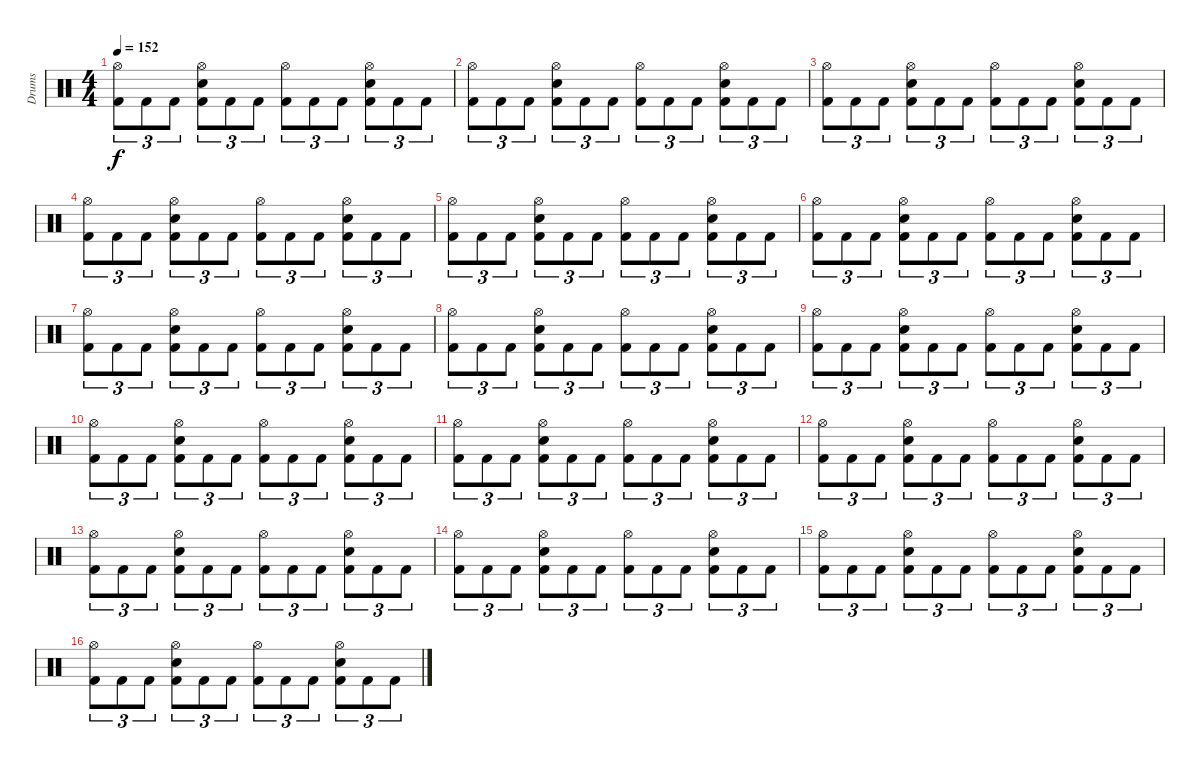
\track ("Drums" "Drums") {instrument percussion}
\staff {score}
\articulation defaults
\ts (4 4)
\tempo 152
\clef neutral
\ks c
("Hi-Hat (open)" "Kick (hit) 2").8{tu (3 2) dy f} "Kick (hit) 2".8{tu (3 2)} "Kick (hit) 2".8{tu (3 2)} ("Hi-Hat (open)" "Snare (hit) 2" "Kick (hit) 2").8{tu (3 2)} "Kick (hit) 2".8{tu (3 2)} "Kick (hit) 2".8{tu (3 2)} ("Hi-Hat (open)" "Kick (hit) 2").8{tu (3 2)} "Kick (hit) 2".8{tu (3 2)} "Kick (hit) 2".8{tu (3 2)} ("Hi-Hat (open)" "Snare (hit) 2" "Kick (hit) 2").8{tu (3 2)} "Kick (hit) 2".8{tu (3 2)} "Kick (hit) 2".8{tu (3 2)} |
("Hi-Hat (open)" "Kick (hit) 2").8{tu (3 2)} "Kick (hit) 2".8{tu (3 2)} "Kick (hit) 2".8{tu (3 2)} ("Hi-Hat (open)" "Snare (hit) 2" "Kick (hit) 2").8{tu (3 2)} "Kick (hit) 2".8{tu (3 2)} "Kick (hit) 2".8{tu (3 2)} ("Hi-Hat (open)" "Kick (hit) 2").8{tu (3 2)} "Kick (hit) 2".8{tu (3 2)} "Kick (hit) 2".8{tu (3 2)} ("Hi-Hat (open)" "Snare (hit) 2" "Kick (hit) 2").8{tu (3 2)} "Kick (hit) 2".8{tu (3 2)} "Kick (hit) 2".8{tu (3 2)} |
("Hi-Hat (open)" "Kick (hit) 2").8{tu (3 2)} "Kick (hit) 2".8{tu (3 2)} "Kick (hit) 2".8{tu (3 2)} ("Hi-Hat (open)" "Snare (hit) 2" "Kick (hit) 2").8{tu (3 2)} "Kick (hit) 2".8{tu (3 2)} "Kick (hit) 2".8{tu (3 2)} ("Hi-Hat (open)" "Kick (hit) 2").8{tu (3 2)} "Kick (hit) 2".8{tu (3 2)} "Kick (hit) 2".8{tu (3 2)} ("Hi-Hat (open)" "Snare (hit) 2" "Kick (hit) 2").8{tu (3 2)} "Kick (hit) 2".8{tu (3 2)} "Kick (hit) 2".8{tu (3 2)} |
("Hi-Hat (open)" "Kick (hit) 2").8{tu (3 2)} "Kick (hit) 2".8{tu (3 2)} "Kick (hit) 2".8{tu (3 2)} ("Hi-Hat (open)" "Snare (hit) 2" "Kick (hit) 2").8{tu (3 2)} "Kick (hit) 2".8{tu (3 2)} "Kick (hit) 2".8{tu (3 2)} ("Hi-Hat (open)" "Kick (hit) 2").8{tu (3 2)} "Kick (hit) 2".8{tu (3 2)} "Kick (hit) 2".8{tu (3 2)} ("Hi-Hat (open)" "Snare (hit) 2" "Kick (hit) 2").8{tu (3 2)} "Kick (hit) 2".8{tu (3 2)} "Kick (hit) 2".8{tu (3 2)} |
("Hi-Hat (open)" "Kick (hit) 2").8{tu (3 2)} "Kick (hit) 2".8{tu (3 2)} "Kick (hit) 2".8{tu (3 2)} ("Hi-Hat (open)" "Snare (hit) 2" "Kick (hit) 2").8{tu (3 2)} "Kick (hit) 2".8{tu (3 2)} "Kick (hit) 2".8{tu (3 2)} ("Hi-Hat (open)" "Kick (hit) 2").8{tu (3 2)} "Kick (hit) 2".8{tu (3 2)} "Kick (hit) 2".8{tu (3 2)} ("Hi-Hat (open)" "Snare (hit) 2" "Kick (hit) 2").8{tu (3 2)} "Kick (hit) 2".8{tu (3 2)} "Kick (hit) 2".8{tu (3 2)} |
("Hi-Hat (open)" "Kick (hit) 2").8{tu (3 2)} "Kick (hit) 2".8{tu (3 2)} "Kick (hit) 2".8{tu (3 2)} ("Hi-Hat (open)" "Snare (hit) 2" "Kick (hit) 2").8{tu (3 2)} "Kick (hit) 2".8{tu (3 2)} "Kick (hit) 2".8{tu (3 2)} ("Hi-Hat (open)" "Kick (hit) 2").8{tu (3 2)} "Kick (hit) 2".8{tu (3 2)} "Kick (hit) 2".8{tu (3 2)} ("Hi-Hat (open)" "Snare (hit) 2" "Kick (hit) 2").8{tu (3 2)} "Kick (hit) 2".8{tu (3 2)} "Kick (hit) 2".8{tu (3 2)} |
("Hi-Hat (open)" "Kick (hit) 2").8{tu (3 2)} "Kick (hit) 2".8{tu (3 2)} "Kick (hit) 2".8{tu (3 2)} ("Hi-Hat (open)" "Snare (hit) 2" "Kick (hit) 2").8{tu (3 2)} "Kick (hit) 2".8{tu (3 2)} "Kick (hit) 2".8{tu (3 2)} ("Hi-Hat (open)" "Kick (hit) 2").8{tu (3 2)} "Kick (hit) 2".8{tu (3 2)} "Kick (hit) 2".8{tu (3 2)} ("Hi-Hat (open)" "Snare (hit) 2" "Kick (hit) 2").8{tu (3 2)} "Kick (hit) 2".8{tu (3 2)} "Kick (hit) 2".8{tu (3 2)} |
("Hi-Hat (open)" "Kick (hit) 2").8{tu (3 2)} "Kick (hit) 2".8{tu (3 2)} "Kick (hit) 2".8{tu (3 2)} ("Hi-Hat (open)" "Snare (hit) 2" "Kick (hit) 2").8{tu (3 2)} "Kick (hit) 2".8{tu (3 2)} "Kick (hit) 2".8{tu (3 2)} ("Hi-Hat (open)" "Kick (hit) 2").8{tu (3 2)} "Kick (hit) 2".8{tu (3 2)} "Kick (hit) 2".8{tu (3 2)} ("Hi-Hat (open)" "Snare (hit) 2" "Kick (hit) 2").8{tu (3 2)} "Kick (hit) 2".8{tu (3 2)} "Kick (hit) 2".8{tu (3 2)} |
("Hi-Hat (open)" "Kick (hit) 2").8{tu (3 2)} "Kick (hit) 2".8{tu (3 2)} "Kick (hit) 2".8{tu (3 2)} ("Hi-Hat (open)" "Snare (hit) 2" "Kick (hit) 2").8{tu (3 2)} "Kick (hit) 2".8{tu (3 2)} "Kick (hit) 2".8{tu (3 2)} ("Hi-Hat (open)" "Kick (hit) 2").8{tu (3 2)} "Kick (hit) 2".8{tu (3 2)} "Kick (hit) 2".8{tu (3 2)} ("Hi-Hat (open)" "Snare (hit) 2" "Kick (hit) 2").8{tu (3 2)} "Kick (hit) 2".8{tu (3 2)} "Kick (hit) 2".8{tu (3 2)} |
("Hi-Hat (open)" "Kick (hit) 2").8{tu (3 2)} "Kick (hit) 2".8{tu (3 2)} "Kick (hit) 2".8{tu (3 2)} ("Hi-Hat (open)" "Snare (hit) 2" "Kick (hit) 2").8{tu (3 2)} "Kick (hit) 2".8{tu (3 2)} "Kick (hit) 2".8{tu (3 2)} ("Hi-Hat (open)" "Kick (hit) 2").8{tu (3 2)} "Kick (hit) 2".8{tu (3 2)} "Kick (hit) 2".8{tu (3 2)} ("Hi-Hat (open)" "Snare (hit) 2" "Kick (hit) 2").8{tu (3 2)} "Kick (hit) 2".8{tu (3 2)} "Kick (hit) 2".8{tu (3 2)} |
("Hi-Hat (open)" "Kick (hit) 2").8{tu (3 2)} "Kick (hit) 2".8{tu (3 2)} "Kick (hit) 2".8{tu (3 2)} ("Hi-Hat (open)" "Snare (hit) 2" "Kick (hit) 2").8{tu (3 2)} "Kick (hit) 2".8{tu (3 2)} "Kick (hit) 2".8{tu (3 2)} ("Hi-Hat (open)" "Kick (hit) 2").8{tu (3 2)} "Kick (hit) 2".8{tu (3 2)} "Kick (hit) 2".8{tu (3 2)} ("Hi-Hat (open)" "Snare (hit) 2" "Kick (hit) 2").8{tu (3 2)} "Kick (hit) 2".8{tu (3 2)} "Kick (hit) 2".8{tu (3 2)} |
("Hi-Hat (open)" "Kick (hit) 2").8{tu (3 2)} "Kick (hit) 2".8{tu (3 2)} "Kick (hit) 2".8{tu (3 2)} ("Hi-Hat (open)" "Snare (hit) 2" "Kick (hit) 2").8{tu (3 2)} "Kick (hit) 2".8{tu (3 2)} "Kick (hit) 2".8{tu (3 2)} ("Hi-Hat (open)" "Kick (hit) 2").8{tu (3 2)} "Kick (hit) 2".8{tu (3 2)} "Kick (hit) 2".8{tu (3 2)} ("Hi-Hat (open)" "Snare (hit) 2" "Kick (hit) 2").8{tu (3 2)} "Kick (hit) 2".8{tu (3 2)} "Kick (hit) 2".8{tu (3 2)} |
("Hi-Hat (open)" "Kick (hit) 2").8{tu (3 2)} "Kick (hit) 2".8{tu (3 2)} "Kick (hit) 2".8{tu (3 2)} ("Hi-Hat (open)" "Snare (hit) 2" "Kick (hit) 2").8{tu (3 2)} "Kick (hit) 2".8{tu (3 2)} "Kick (hit) 2".8{tu (3 2)} ("Hi-Hat (open)" "Kick (hit) 2").8{tu (3 2)} "Kick (hit) 2".8{tu (3 2)} "Kick (hit) 2".8{tu (3 2)} ("Hi-Hat (open)" "Snare (hit) 2" "Kick (hit) 2").8{tu (3 2)} "Kick (hit) 2".8{tu (3 2)} "Kick (hit) 2".8{tu (3 2)} |
("Hi-Hat (open)" "Kick (hit) 2").8{tu (3 2)} "Kick (hit) 2".8{tu (3 2)} "Kick (hit) 2".8{tu (3 2)} ("Hi-Hat (open)" "Snare (hit) 2" "Kick (hit) 2").8{tu (3 2)} "Kick (hit) 2".8{tu (3 2)} "Kick (hit) 2".8{tu (3 2)} ("Hi-Hat (open)" "Kick (hit) 2").8{tu (3 2)} "Kick (hit) 2".8{tu (3 2)} "Kick (hit) 2".8{tu (3 2)} ("Hi-Hat (open)" "Snare (hit) 2" "Kick (hit) 2").8{tu (3 2)} "Kick (hit) 2".8{tu (3 2)} "Kick (hit) 2".8{tu (3 2)} |
("Hi-Hat (open)" "Kick (hit) 2").8{tu (3 2)} "Kick (hit) 2".8{tu (3 2)} "Kick (hit) 2".8{tu (3 2)} ("Hi-Hat (open)" "Snare (hit) 2" "Kick (hit) 2").8{tu (3 2)} "Kick (hit) 2".8{tu (3 2)} "Kick (hit) 2".8{tu (3 2)} ("Hi-Hat (open)" "Kick (hit) 2").8{tu (3 2)} "Kick (hit) 2".8{tu (3 2)} "Kick (hit) 2".8{tu (3 2)} ("Hi-Hat (open)" "Snare (hit) 2" "Kick (hit) 2").8{tu (3 2)} "Kick (hit) 2".8{tu (3 2)} "Kick (hit) 2".8{tu (3 2)} |
("Hi-Hat (open)" "Kick (hit) 2").8{tu (3 2)} "Kick (hit) 2".8{tu (3 2)} "Kick (hit) 2".8{tu (3 2)} ("Hi-Hat (open)" "Snare (hit) 2" "Kick (hit) 2").8{tu (3 2)} "Kick (hit) 2".8{tu (3 2)} "Kick (hit) 2".8{tu (3 2)} ("Hi-Hat (open)" "Kick (hit) 2").8{tu (3 2)} "Kick (hit) 2".8{tu (3 2)} "Kick (hit) 2".8{tu (3 2)} ("Hi-Hat (open)" "Snare (hit) 2" "Kick (hit) 2").8{tu (3 2)} "Kick (hit) 2".8{tu (3 2)} "Kick (hit) 2".8{tu (3 2)}
